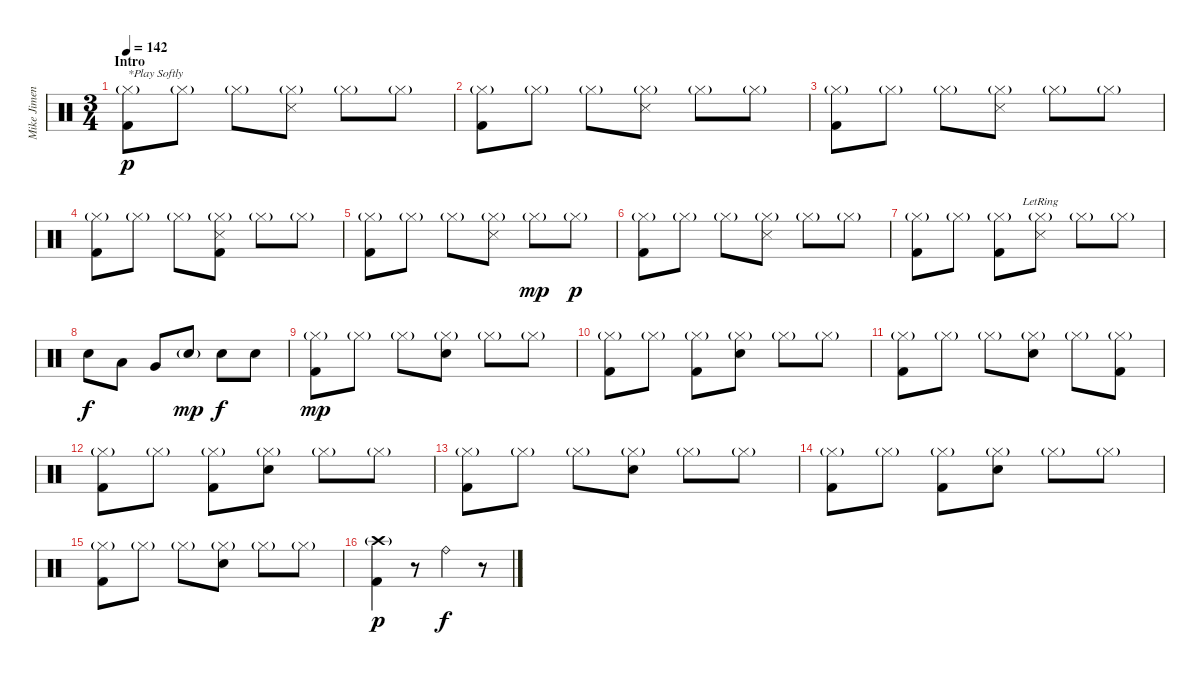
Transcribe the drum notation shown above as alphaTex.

\track ("Mike Jimenez" "Mike Jimen") {instrument percussion}
\staff {score}
\articulation defaults
\ts (3 4)
\section ("" "Intro")
\tempo 142
\clef neutral
\ks c
("Hi-Hat (closed)"{g} "Kick (hit) 2").8{txt "*Play Softly" dy p volume 11} "Hi-Hat (closed)"{g}.8 "Hi-Hat (closed)"{g}.8 ("Hi-Hat (closed)"{g} "Snare (side stick) 3").8 "Hi-Hat (closed)"{g}.8 "Hi-Hat (closed)"{g}.8 |
("Hi-Hat (closed)"{g} "Kick (hit) 2").8 "Hi-Hat (closed)"{g}.8 "Hi-Hat (closed)"{g}.8 ("Hi-Hat (closed)"{g} "Snare (side stick) 3").8 "Hi-Hat (closed)"{g}.8 "Hi-Hat (closed)"{g}.8 |
("Hi-Hat (closed)"{g} "Kick (hit) 2").8 "Hi-Hat (closed)"{g}.8 "Hi-Hat (closed)"{g}.8 ("Hi-Hat (closed)"{g} "Snare (side stick) 3").8 "Hi-Hat (closed)"{g}.8 "Hi-Hat (closed)"{g}.8 |
("Hi-Hat (closed)"{g} "Kick (hit) 2").8 "Hi-Hat (closed)"{g}.8 "Hi-Hat (closed)"{g}.8 ("Hi-Hat (closed)"{g} "Snare (side stick) 3" "Kick (hit) 2").8 "Hi-Hat (closed)"{g}.8 "Hi-Hat (closed)"{g}.8 |
("Hi-Hat (closed)"{g} "Kick (hit) 2").8 "Hi-Hat (closed)"{g}.8 "Hi-Hat (closed)"{g}.8 ("Hi-Hat (closed)"{g} "Snare (side stick) 3").8 "Hi-Hat (closed)"{g}.8{dy mp} "Hi-Hat (closed)"{g}.8{dy p} |
("Hi-Hat (closed)"{g} "Kick (hit) 2").8 "Hi-Hat (closed)"{g}.8 "Hi-Hat (closed)"{g}.8 ("Hi-Hat (closed)"{g} "Snare (side stick) 3").8 "Hi-Hat (closed)"{g}.8 "Hi-Hat (closed)"{g}.8 |
("Hi-Hat (closed)"{g} "Kick (hit) 2").8 "Hi-Hat (closed)"{g}.8 ("Hi-Hat (closed)"{g} "Kick (hit) 2").8 ("Hi-Hat (closed)"{g lr} "Snare (side stick) 3").8 "Hi-Hat (closed)"{g}.8 "Hi-Hat (closed)"{g}.8 |
"Electric Snare (hit)".8{dy f} "Low Tom (hit)".8 "Very Low Tom (hit)".8 "Electric Snare (hit)"{g}.8{dy mp} "Electric Snare (hit)".8{dy f} "Electric Snare (hit)".8 |
("Hi-Hat (closed)"{g} "Kick (hit) 2").8{dy mp} "Hi-Hat (closed)"{g}.8 "Hi-Hat (closed)"{g}.8 ("Hi-Hat (closed)"{g} "Electric Snare (hit)").8 "Hi-Hat (closed)"{g}.8 "Hi-Hat (closed)"{g}.8 |
("Hi-Hat (closed)"{g} "Kick (hit) 2").8 "Hi-Hat (closed)"{g}.8 ("Hi-Hat (closed)"{g} "Kick (hit) 2").8 ("Hi-Hat (closed)"{g} "Electric Snare (hit)").8 "Hi-Hat (closed)"{g}.8 "Hi-Hat (closed)"{g}.8 |
("Hi-Hat (closed)"{g} "Kick (hit) 2").8 "Hi-Hat (closed)"{g}.8 "Hi-Hat (closed)"{g}.8 ("Hi-Hat (closed)"{g} "Electric Snare (hit)").8 "Hi-Hat (closed)"{g}.8 ("Hi-Hat (closed)"{g} "Kick (hit) 2").8 |
("Hi-Hat (closed)"{g} "Kick (hit) 2").8 "Hi-Hat (closed)"{g}.8 ("Hi-Hat (closed)"{g} "Kick (hit) 2").8 ("Hi-Hat (closed)"{g} "Electric Snare (hit)").8 "Hi-Hat (closed)"{g}.8 "Hi-Hat (closed)"{g}.8 |
("Hi-Hat (closed)"{g} "Kick (hit) 2").8 "Hi-Hat (closed)"{g}.8 "Hi-Hat (closed)"{g}.8 ("Hi-Hat (closed)"{g} "Electric Snare (hit)").8 "Hi-Hat (closed)"{g}.8 "Hi-Hat (closed)"{g}.8 |
("Hi-Hat (closed)"{g} "Kick (hit) 2").8 "Hi-Hat (closed)"{g}.8 ("Hi-Hat (closed)"{g} "Kick (hit) 2").8 ("Hi-Hat (closed)"{g} "Electric Snare (hit)").8 "Hi-Hat (closed)"{g}.8 "Hi-Hat (closed)"{g}.8 |
("Hi-Hat (closed)"{g} "Kick (hit) 2").8 "Hi-Hat (closed)"{g}.8 "Hi-Hat (closed)"{g}.8 ("Hi-Hat (closed)"{g} "Electric Snare (hit)").8 "Hi-Hat (closed)"{g}.8 "Hi-Hat (closed)"{g}.8 |
("Crash high (hit)"{g} "Kick (hit) 2").4{dy p} r.8 "Ride (bell)".4{dy f} r.8
